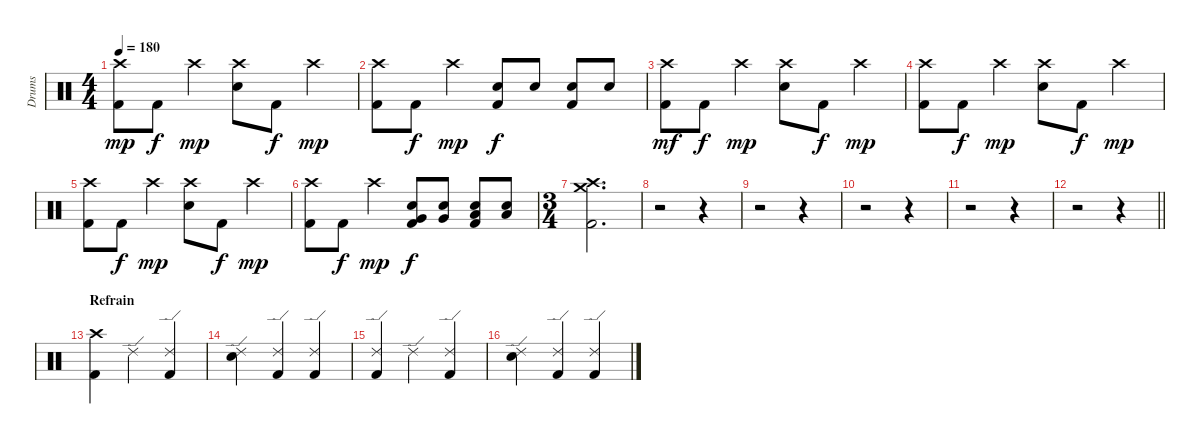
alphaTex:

\track ("Drums" "Drums") {instrument percussion}
\staff {score}
\articulation defaults
\ts (4 4)
\tempo 180
\clef neutral
\ks c
("Crash high (hit)" "Kick (hit) 2").8{dy mp} "Kick (hit) 2".8{dy f} "Crash high (hit)".4{dy mp} ("Crash high (hit)" "Electric Snare (hit)").8 "Kick (hit) 2".8{dy f} "Crash high (hit)".4{dy mp} |
("Crash high (hit)" "Kick (hit) 2").8 "Kick (hit) 2".8{dy f} "Crash high (hit)".4{dy mp} ("Electric Snare (hit)" "Kick (hit) 2").8{dy f} "Electric Snare (hit)".8 ("Electric Snare (hit)" "Kick (hit) 2").8 "Electric Snare (hit)".8 |
("Crash high (hit)" "Kick (hit) 2").8{dy mf} "Kick (hit) 2".8{dy f} "Crash high (hit)".4{dy mp} ("Crash high (hit)" "Electric Snare (hit)").8 "Kick (hit) 2".8{dy f} "Crash high (hit)".4{dy mp} |
("Crash high (hit)" "Kick (hit) 2").8 "Kick (hit) 2".8{dy f} "Crash high (hit)".4{dy mp} ("Crash high (hit)" "Electric Snare (hit)").8 "Kick (hit) 2".8{dy f} "Crash high (hit)".4{dy mp} |
("Crash high (hit)" "Kick (hit) 2").8 "Kick (hit) 2".8{dy f} "Crash high (hit)".4{dy mp} ("Crash high (hit)" "Electric Snare (hit)").8 "Kick (hit) 2".8{dy f} "Crash high (hit)".4{dy mp} |
("Crash high (hit)" "Kick (hit) 2").8 "Kick (hit) 2".8{dy f} "Crash high (hit)".4{dy mp} ("Electric Snare (hit)" "Very Low Tom (hit)" "Kick (hit) 2").8{dy f} ("Electric Snare (hit)" "Very Low Tom (hit)").8 ("Electric Snare (hit)" "Low Floor Tom (hit)" "Kick (hit) 2").8 ("Electric Snare (hit)" "Low Floor Tom (hit)").8 |
\ts (3 4)
("Crash medium (hit)" "Crash high (hit)" "Kick (hit) 2").2{d} |
r.2 r.4 |
r.2 r.4 |
r.2 r.4 |
r.2 r.4 |
\barLineRight lightlight
r.2 r.4 |
\section ("" "Refrain")
("Crash high (hit)" "Kick (hit) 2").4 "Ride (edge) 2".4 ("Ride (edge) 2" "Kick (hit) 2").4 |
("Ride (edge) 2" "Electric Snare (hit)").4 ("Ride (edge) 2" "Kick (hit) 2").4 ("Ride (edge) 2" "Kick (hit) 2").4 |
("Ride (edge) 2" "Kick (hit) 2").4 "Ride (edge) 2".4 ("Ride (edge) 2" "Kick (hit) 2").4 |
("Ride (edge) 2" "Electric Snare (hit)").4 ("Ride (edge) 2" "Kick (hit) 2").4 ("Ride (edge) 2" "Kick (hit) 2").4
